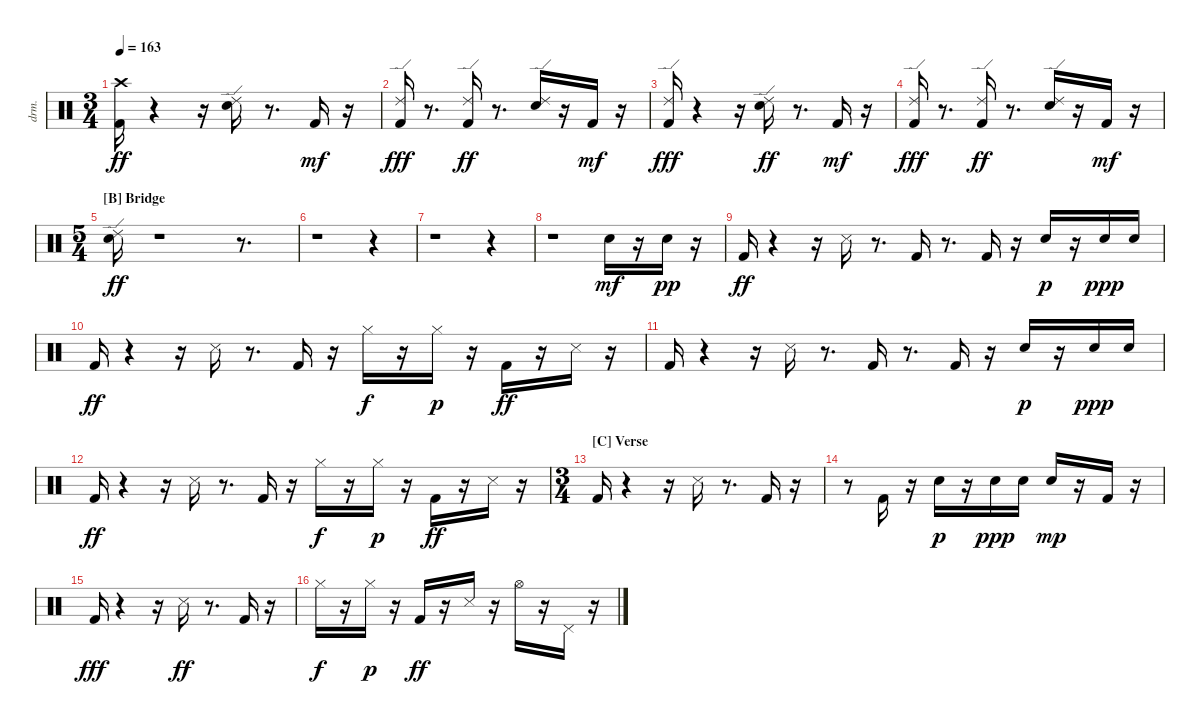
\bracketExtendMode nobrackets
\track ("EZdrummer 3" "drm.") {instrument percussion}
\staff {score}
\articulation defaults
\ts (3 4)
\tempo 163
\clef neutral
\ks aminor
("Kick (hit) 2" "Crash high (hit)"{acc #}).16{dy ff beam Down} r.4{beam Down} r.16{beam Down} ("Snare (hit) 2" "Ride (edge) 2").16{beam Down} r.8{d beam Down} "Kick (hit) 2".16{dy mf beam Up} r.16{beam Down} |
("Kick (hit) 2" "Ride (edge) 2").16{dy fff beam Up} r.8{d beam Down} ("Kick (hit) 2" "Ride (edge) 2").16{dy ff beam Up} r.8{d beam Down} ("Snare (hit) 2" "Ride (edge) 2").16{beam Up} r.16{beam Up} "Kick (hit) 2".16{dy mf beam Up} r.16{beam Down} |
("Kick (hit) 2" "Ride (edge) 2").16{dy fff beam Up} r.4{beam Down} r.16{beam Down} ("Snare (hit) 2" "Ride (edge) 2").16{dy ff beam Down} r.8{d beam Down} "Kick (hit) 2".16{dy mf beam Up} r.16{beam Down} |
("Kick (hit) 2" "Ride (edge) 2").16{dy fff beam Up} r.8{d beam Down} ("Kick (hit) 2" "Ride (edge) 2").16{dy ff beam Up} r.8{d beam Down} ("Snare (hit) 2" "Ride (edge) 2").16{beam Up} r.16{beam Up} "Kick (hit) 2".16{dy mf beam Up} r.16{beam Down} |
\ts (5 4)
\section ("B" "Bridge")
("Snare (hit) 2" "Ride (edge) 2").16{dy ff beam Down} r.1{beam Down} r.8{d beam Down} |
r.1{beam Down} r.4{beam Down} |
r.1{beam Down} r.4{beam Down} |
r.1{beam Down} "Snare (hit) 2".16{dy mf beam Down} r.16{beam Down} "Snare (hit) 2".16{dy pp beam Down} r.16{beam Down} |
"Kick (hit) 2".16{dy ff beam Up} r.4{beam Down} r.16{beam Down} "Snare (side stick) 3"{acc #}.16{beam Up} r.8{d beam Up} "Kick (hit) 2".16{beam Up} r.8{d beam Down} "Kick (hit) 2".16{beam Up} r.16{beam Up} "Snare (hit) 2".16{dy p beam Up} r.16{beam Up} "Snare (hit) 2".16{dy ppp beam Up} "Snare (hit) 2".16{beam Up} |
"Kick (hit) 2".16{dy ff beam Up} r.4{beam Down} r.16{beam Down} "Snare (side stick) 3"{acc #}.16{beam Up} r.8{d beam Up} "Kick (hit) 2".16{beam Up} r.16{beam Down} "Hi-Hat (closed)"{acc #}.16{dy f beam Down} r.16{beam Down} "Hi-Hat (closed)"{acc #}.16{dy p beam Down} r.16{beam Down} "Kick (hit) 2".16{dy ff beam Down} r.16{beam Down} "Snare (side stick) 3"{acc #}.16{beam Down} r.16{beam Down} |
"Kick (hit) 2".16{beam Up} r.4{beam Down} r.16{beam Down} "Snare (side stick) 3"{acc #}.16{beam Up} r.8{d beam Up} "Kick (hit) 2".16{beam Up} r.8{d beam Down} "Kick (hit) 2".16{beam Up} r.16{beam Up} "Snare (hit) 2".16{dy p beam Up} r.16{beam Up} "Snare (hit) 2".16{dy ppp beam Up} "Snare (hit) 2".16{beam Up} |
"Kick (hit) 2".16{dy ff beam Up} r.4{beam Down} r.16{beam Down} "Snare (side stick) 3"{acc #}.16{beam Up} r.8{d beam Up} "Kick (hit) 2".16{beam Up} r.16{beam Down} "Hi-Hat (closed)"{acc #}.16{dy f beam Down} r.16{beam Down} "Hi-Hat (closed)"{acc #}.16{dy p beam Down} r.16{beam Down} "Kick (hit) 2".16{dy ff beam Down} r.16{beam Down} "Snare (side stick) 3"{acc #}.16{beam Down} r.16{beam Down} |
\ts (3 4)
\section ("C" "Verse")
"Kick (hit) 2".16{beam Up} r.4{beam Down} r.16{beam Down} "Snare (side stick) 3"{acc #}.16{beam Down} r.8{d beam Down} "Kick (hit) 2".16{beam Up} r.16{beam Down} |
r.8{beam Down} "Kick (hit) 2".16{beam Up} r.16{beam Down} "Snare (hit) 2".16{dy p beam Down} r.16{beam Down} "Snare (hit) 2".16{dy ppp beam Down} "Snare (hit) 2".16{beam Down} "Snare (hit) 2".16{dy mp beam Up} r.16{beam Up} "Kick (hit) 2".16{beam Up} r.16{beam Down} |
"Kick (hit) 2".16{dy fff beam Up} r.4{beam Down} r.16{beam Down} "Snare (side stick) 3"{acc #}.16{dy ff beam Down} r.8{d beam Down} "Kick (hit) 2".16{beam Up} r.16{beam Down} |
"Hi-Hat (closed)"{acc #}.16{dy f beam Down} r.16{beam Down} "Hi-Hat (closed)"{acc #}.16{dy p beam Down} r.16{beam Down} "Kick (hit) 2".16{dy ff beam Up} r.16{beam Up} "Snare (side stick) 3"{acc #}.16{beam Up} r.16{beam Down} "Hi-Hat (open)"{acc #}.16{beam Down} r.16{beam Down} "Pedal Hi-Hat (hit)"{acc #}.16{beam Down} r.16{beam Down}
